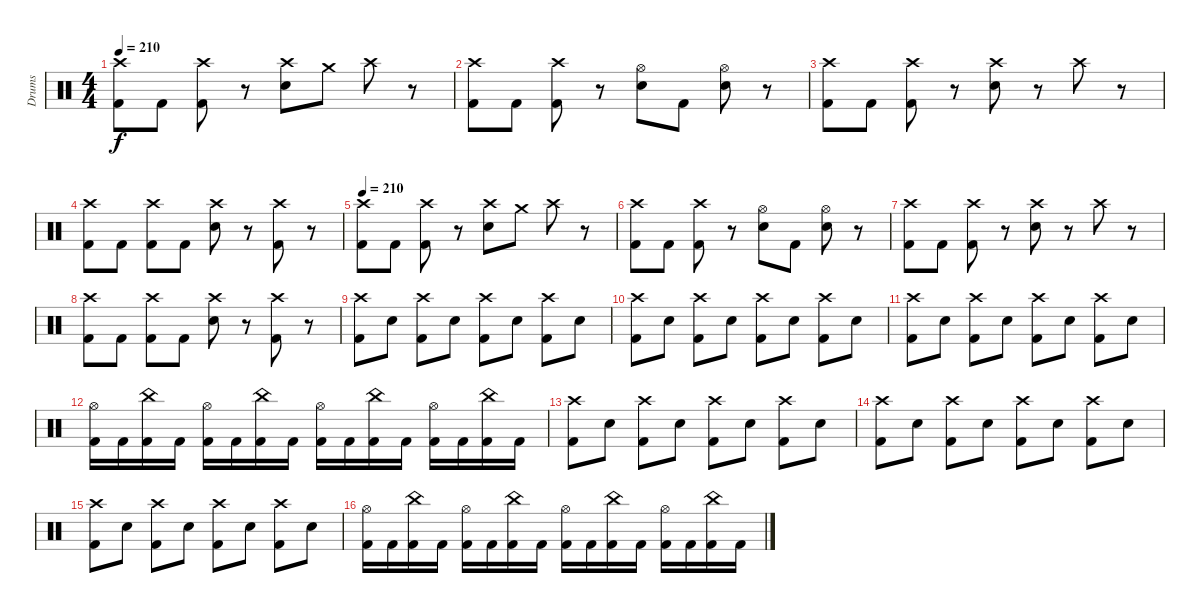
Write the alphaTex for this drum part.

\track ("Drums" "Drums") {instrument percussion}
\staff {score}
\articulation defaults
\ts (4 4)
\tempo 210
\clef neutral
\ks c
("Crash high (hit)" "Kick (hit) 2").8{dy f} "Kick (hit) 2".8 ("Crash high (hit)" "Kick (hit) 2").8 r.8 ("Crash high (hit)" "Snare (hit) 2").8 "Crash medium (hit)".8 "Crash high (hit)".8 r.8 |
("Crash high (hit)" "Kick (hit) 2").8 "Kick (hit) 2".8 ("Crash high (hit)" "Kick (hit) 2").8 r.8 ("Hi-Hat (open)" "Snare (hit) 2").8 "Kick (hit) 2".8 ("Hi-Hat (open)" "Snare (hit) 2").8 r.8 |
("Crash high (hit)" "Kick (hit) 2").8 "Kick (hit) 2".8 ("Crash high (hit)" "Kick (hit) 2").8 r.8 ("Crash high (hit)" "Snare (hit) 2").8 r.8 "Crash high (hit)".8 r.8 |
("Crash high (hit)" "Kick (hit) 2").8 "Kick (hit) 2".8 ("Crash high (hit)" "Kick (hit) 2").8 "Kick (hit) 2".8 ("Crash high (hit)" "Snare (hit) 2").8 r.8 ("Crash high (hit)" "Kick (hit) 2").8 r.8 |
\tempo 210
("Crash high (hit)" "Kick (hit) 2").8 "Kick (hit) 2".8 ("Crash high (hit)" "Kick (hit) 2").8 r.8 ("Crash high (hit)" "Snare (hit) 2").8 "Crash medium (hit)".8 "Crash high (hit)".8 r.8 |
("Crash high (hit)" "Kick (hit) 2").8 "Kick (hit) 2".8 ("Crash high (hit)" "Kick (hit) 2").8 r.8 ("Hi-Hat (open)" "Snare (hit) 2").8 "Kick (hit) 2".8 ("Hi-Hat (open)" "Snare (hit) 2").8 r.8 |
("Crash high (hit)" "Kick (hit) 2").8 "Kick (hit) 2".8 ("Crash high (hit)" "Kick (hit) 2").8 r.8 ("Crash high (hit)" "Snare (hit) 2").8 r.8 "Crash high (hit)".8 r.8 |
("Crash high (hit)" "Kick (hit) 2").8 "Kick (hit) 2".8 ("Crash high (hit)" "Kick (hit) 2").8 "Kick (hit) 2".8 ("Crash high (hit)" "Snare (hit) 2").8 r.8 ("Crash high (hit)" "Kick (hit) 2").8 r.8 |
("Crash high (hit)" "Kick (hit) 2").8 "Snare (hit) 2".8 ("Crash high (hit)" "Kick (hit) 2").8 "Snare (hit) 2".8 ("Crash high (hit)" "Kick (hit) 2").8 "Snare (hit) 2".8 ("Crash high (hit)" "Kick (hit) 2").8 "Snare (hit) 2".8 |
("Crash high (hit)" "Kick (hit) 2").8 "Snare (hit) 2".8 ("Crash high (hit)" "Kick (hit) 2").8 "Snare (hit) 2".8 ("Crash high (hit)" "Kick (hit) 2").8 "Snare (hit) 2".8 ("Crash high (hit)" "Kick (hit) 2").8 "Snare (hit) 2".8 |
("Crash high (hit)" "Kick (hit) 2").8 "Snare (hit) 2".8 ("Crash high (hit)" "Kick (hit) 2").8 "Snare (hit) 2".8 ("Crash high (hit)" "Kick (hit) 2").8 "Snare (hit) 2".8 ("Crash high (hit)" "Kick (hit) 2").8 "Snare (hit) 2".8 |
("Hi-Hat (open)" "Kick (hit) 2").16 "Kick (hit) 2".16 ("China (hit)" "Kick (hit) 2").16 "Kick (hit) 2".16 ("Hi-Hat (open)" "Kick (hit) 2").16 "Kick (hit) 2".16 ("China (hit)" "Kick (hit) 2").16 "Kick (hit) 2".16 ("Hi-Hat (open)" "Kick (hit) 2").16 "Kick (hit) 2".16 ("China (hit)" "Kick (hit) 2").16 "Kick (hit) 2".16 ("Hi-Hat (open)" "Kick (hit) 2").16 "Kick (hit) 2".16 ("China (hit)" "Kick (hit) 2").16 "Kick (hit) 2".16 |
("Crash high (hit)" "Kick (hit) 2").8 "Snare (hit) 2".8 ("Crash high (hit)" "Kick (hit) 2").8 "Snare (hit) 2".8 ("Crash high (hit)" "Kick (hit) 2").8 "Snare (hit) 2".8 ("Crash high (hit)" "Kick (hit) 2").8 "Snare (hit) 2".8 |
("Crash high (hit)" "Kick (hit) 2").8 "Snare (hit) 2".8 ("Crash high (hit)" "Kick (hit) 2").8 "Snare (hit) 2".8 ("Crash high (hit)" "Kick (hit) 2").8 "Snare (hit) 2".8 ("Crash high (hit)" "Kick (hit) 2").8 "Snare (hit) 2".8 |
("Crash high (hit)" "Kick (hit) 2").8 "Snare (hit) 2".8 ("Crash high (hit)" "Kick (hit) 2").8 "Snare (hit) 2".8 ("Crash high (hit)" "Kick (hit) 2").8 "Snare (hit) 2".8 ("Crash high (hit)" "Kick (hit) 2").8 "Snare (hit) 2".8 |
("Hi-Hat (open)" "Kick (hit) 2").16 "Kick (hit) 2".16 ("China (hit)" "Kick (hit) 2").16 "Kick (hit) 2".16 ("Hi-Hat (open)" "Kick (hit) 2").16 "Kick (hit) 2".16 ("China (hit)" "Kick (hit) 2").16 "Kick (hit) 2".16 ("Hi-Hat (open)" "Kick (hit) 2").16 "Kick (hit) 2".16 ("China (hit)" "Kick (hit) 2").16 "Kick (hit) 2".16 ("Hi-Hat (open)" "Kick (hit) 2").16 "Kick (hit) 2".16 ("China (hit)" "Kick (hit) 2").16 "Kick (hit) 2".16
